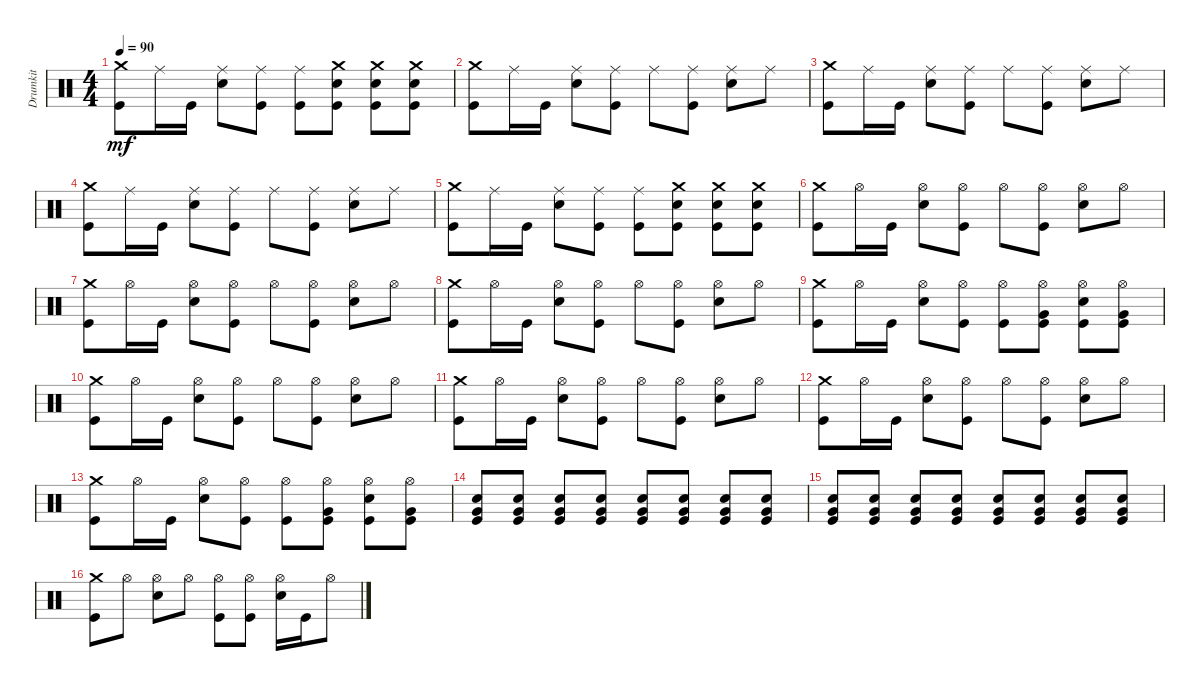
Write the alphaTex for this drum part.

\track ("Drumkit" "Drumkit") {instrument percussion}
\staff {score}
\articulation defaults
\ts (4 4)
\tempo 90
\clef neutral
\ks c
("Crash medium (hit)" "Kick (hit)").8{dy mf} "Ride (middle)".16 "Kick (hit)".16 ("Snare (hit) 2" "Ride (middle)").8 ("Kick (hit)" "Ride (middle)").8 ("Kick (hit)" "Ride (middle)").8 ("Snare (hit) 2" "Kick (hit)" "Crash medium (hit)").8 ("Snare (hit) 2" "Kick (hit)" "Crash medium (hit)").8 ("Snare (hit) 2" "Kick (hit)" "Crash medium (hit)").8 |
("Crash medium (hit)" "Kick (hit)").8 "Ride (middle)".16 "Kick (hit)".16 ("Snare (hit) 2" "Ride (middle)").8 ("Kick (hit)" "Ride (middle)").8 "Ride (middle)".8 ("Kick (hit)" "Ride (middle)").8 ("Snare (hit) 2" "Ride (middle)").8 "Ride (middle)".8 |
("Crash medium (hit)" "Kick (hit)").8 "Ride (middle)".16 "Kick (hit)".16 ("Snare (hit) 2" "Ride (middle)").8 ("Kick (hit)" "Ride (middle)").8 "Ride (middle)".8 ("Kick (hit)" "Ride (middle)").8 ("Snare (hit) 2" "Ride (middle)").8 "Ride (middle)".8 |
("Crash medium (hit)" "Kick (hit)").8 "Ride (middle)".16 "Kick (hit)".16 ("Snare (hit) 2" "Ride (middle)").8 ("Kick (hit)" "Ride (middle)").8 "Ride (middle)".8 ("Kick (hit)" "Ride (middle)").8 ("Snare (hit) 2" "Ride (middle)").8 "Ride (middle)".8 |
("Crash medium (hit)" "Kick (hit)").8 "Ride (middle)".16 "Kick (hit)".16 ("Snare (hit) 2" "Ride (middle)").8 ("Kick (hit)" "Ride (middle)").8 ("Kick (hit)" "Ride (middle)").8 ("Snare (hit) 2" "Kick (hit)" "Crash medium (hit)").8 ("Snare (hit) 2" "Kick (hit)" "Crash medium (hit)").8 ("Snare (hit) 2" "Kick (hit)" "Crash medium (hit)").8 |
("Crash medium (hit)" "Kick (hit)").8 "Hi-Hat (open)".16 "Kick (hit)".16 ("Snare (hit) 2" "Hi-Hat (open)").8 ("Kick (hit)" "Hi-Hat (open)").8 "Hi-Hat (open)".8 ("Kick (hit)" "Hi-Hat (open)").8 ("Snare (hit) 2" "Hi-Hat (open)").8 "Hi-Hat (open)".8 |
("Crash medium (hit)" "Kick (hit)").8 "Hi-Hat (open)".16 "Kick (hit)".16 ("Snare (hit) 2" "Hi-Hat (open)").8 ("Kick (hit)" "Hi-Hat (open)").8 "Hi-Hat (open)".8 ("Kick (hit)" "Hi-Hat (open)").8 ("Snare (hit) 2" "Hi-Hat (open)").8 "Hi-Hat (open)".8 |
("Crash medium (hit)" "Kick (hit)").8 "Hi-Hat (open)".16 "Kick (hit)".16 ("Snare (hit) 2" "Hi-Hat (open)").8 ("Kick (hit)" "Hi-Hat (open)").8 "Hi-Hat (open)".8 ("Kick (hit)" "Hi-Hat (open)").8 ("Snare (hit) 2" "Hi-Hat (open)").8 "Hi-Hat (open)".8 |
("Crash medium (hit)" "Kick (hit)").8 "Hi-Hat (open)".16 "Kick (hit)".16 ("Snare (hit) 2" "Hi-Hat (open)").8 ("Kick (hit)" "Hi-Hat (open)").8 ("Kick (hit)" "Hi-Hat (open)").8 ("Kick (hit)" "Hi-Hat (open)" "Very Low Tom (hit)").8 ("Snare (hit) 2" "Kick (hit)" "Hi-Hat (open)").8 ("Kick (hit)" "Hi-Hat (open)" "Very Low Tom (hit)").8 |
("Crash medium (hit)" "Kick (hit)").8 "Hi-Hat (open)".16 "Kick (hit)".16 ("Snare (hit) 2" "Hi-Hat (open)").8 ("Kick (hit)" "Hi-Hat (open)").8 "Hi-Hat (open)".8 ("Kick (hit)" "Hi-Hat (open)").8 ("Snare (hit) 2" "Hi-Hat (open)").8 "Hi-Hat (open)".8 |
("Crash medium (hit)" "Kick (hit)").8 "Hi-Hat (open)".16 "Kick (hit)".16 ("Snare (hit) 2" "Hi-Hat (open)").8 ("Kick (hit)" "Hi-Hat (open)").8 "Hi-Hat (open)".8 ("Kick (hit)" "Hi-Hat (open)").8 ("Snare (hit) 2" "Hi-Hat (open)").8 "Hi-Hat (open)".8 |
("Crash medium (hit)" "Kick (hit)").8 "Hi-Hat (open)".16 "Kick (hit)".16 ("Snare (hit) 2" "Hi-Hat (open)").8 ("Kick (hit)" "Hi-Hat (open)").8 "Hi-Hat (open)".8 ("Kick (hit)" "Hi-Hat (open)").8 ("Snare (hit) 2" "Hi-Hat (open)").8 "Hi-Hat (open)".8 |
("Crash medium (hit)" "Kick (hit)").8 "Hi-Hat (open)".16 "Kick (hit)".16 ("Snare (hit) 2" "Hi-Hat (open)").8 ("Kick (hit)" "Hi-Hat (open)").8 ("Kick (hit)" "Hi-Hat (open)").8 ("Kick (hit)" "Hi-Hat (open)" "Very Low Tom (hit)").8 ("Snare (hit) 2" "Kick (hit)" "Hi-Hat (open)").8 ("Kick (hit)" "Hi-Hat (open)" "Very Low Tom (hit)").8 |
("Kick (hit)" "Very Low Tom (hit)" "Snare (hit) 2").8 ("Kick (hit)" "Very Low Tom (hit)" "Snare (hit) 2").8 ("Kick (hit)" "Very Low Tom (hit)" "Snare (hit) 2").8 ("Kick (hit)" "Very Low Tom (hit)" "Snare (hit) 2").8 ("Kick (hit)" "Very Low Tom (hit)" "Snare (hit) 2").8 ("Kick (hit)" "Very Low Tom (hit)" "Snare (hit) 2").8 ("Kick (hit)" "Very Low Tom (hit)" "Snare (hit) 2").8 ("Kick (hit)" "Very Low Tom (hit)" "Snare (hit) 2").8 |
("Kick (hit)" "Very Low Tom (hit)" "Snare (hit) 2").8 ("Kick (hit)" "Very Low Tom (hit)" "Snare (hit) 2").8 ("Kick (hit)" "Very Low Tom (hit)" "Snare (hit) 2").8 ("Kick (hit)" "Very Low Tom (hit)" "Snare (hit) 2").8 ("Kick (hit)" "Very Low Tom (hit)" "Snare (hit) 2").8 ("Kick (hit)" "Very Low Tom (hit)" "Snare (hit) 2").8 ("Kick (hit)" "Very Low Tom (hit)" "Snare (hit) 2").8 ("Kick (hit)" "Very Low Tom (hit)" "Snare (hit) 2").8 |
("Crash medium (hit)" "Kick (hit)").8 "Hi-Hat (open)".8 ("Snare (hit) 2" "Hi-Hat (open)").8 "Hi-Hat (open)".8 ("Kick (hit)" "Hi-Hat (open)").8 ("Kick (hit)" "Hi-Hat (open)").8 ("Snare (hit) 2" "Hi-Hat (open)").16 "Kick (hit)".16 "Hi-Hat (open)".8
